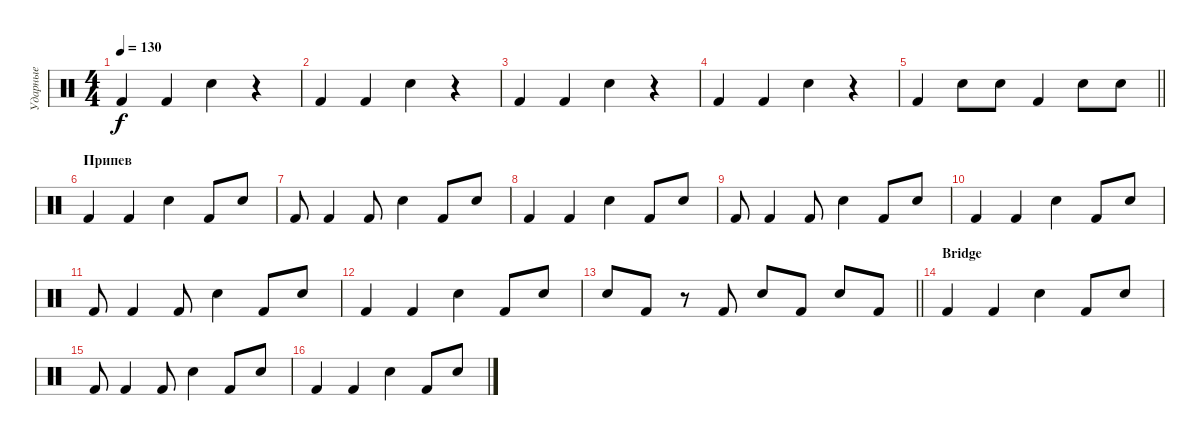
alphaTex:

\track ("Ударные" "Ударные") {instrument percussion}
\staff {score}
\articulation defaults
\ts (4 4)
\tempo 130
\clef neutral
\ks c "Kick (hit) 2".4{dy f} "Kick (hit) 2".4 "Snare (hit) 2".4
r.4 |
"Kick (hit) 2".4 "Kick (hit) 2".4 "Snare (hit) 2".4 r.4 |
"Kick (hit) 2".4 "Kick (hit) 2".4 "Snare (hit) 2".4 r.4 |
"Kick (hit) 2".4 "Kick (hit) 2".4 "Snare (hit) 2".4 r.4 |
\barLineRight lightlight "Kick (hit) 2".4 "Snare (hit) 2".8 "Snare (hit) 2".8 "Kick (hit) 2".4 "Snare (hit) 2".8 "Snare (hit) 2".8
|
\section ("" "Припев")
"Kick (hit) 2".4 "Kick (hit) 2".4 "Snare (hit) 2".4 "Kick (hit) 2".8 "Snare (hit) 2".8 |
"Kick (hit) 2".8 "Kick (hit) 2".4 "Kick (hit) 2".8 "Snare (hit) 2".4 "Kick (hit) 2".8 "Snare (hit) 2".8 |
"Kick (hit) 2".4 "Kick (hit) 2".4 "Snare (hit) 2".4 "Kick (hit) 2".8 "Snare (hit) 2".8 |
"Kick (hit) 2".8 "Kick (hit) 2".4 "Kick (hit) 2".8 "Snare (hit) 2".4 "Kick (hit) 2".8 "Snare (hit) 2".8 |
"Kick (hit) 2".4 "Kick (hit) 2".4 "Snare (hit) 2".4 "Kick (hit) 2".8 "Snare (hit) 2".8 |
"Kick (hit) 2".8 "Kick (hit) 2".4 "Kick (hit) 2".8 "Snare (hit) 2".4 "Kick (hit) 2".8 "Snare (hit) 2".8 |
"Kick (hit) 2".4 "Kick (hit) 2".4 "Snare (hit) 2".4 "Kick (hit) 2".8 "Snare (hit) 2".8 |
\barLineRight lightlight "Snare (hit) 2".8 "Kick (hit) 2".8
r.8 "Kick (hit) 2".8 "Snare (hit) 2".8 "Kick (hit) 2".8 "Snare (hit) 2".8 "Kick (hit) 2".8 |
\section ("" "Bridge")
"Kick (hit) 2".4 "Kick (hit) 2".4 "Snare (hit) 2".4 "Kick (hit) 2".8 "Snare (hit) 2".8 |
"Kick (hit) 2".8 "Kick (hit) 2".4 "Kick (hit) 2".8 "Snare (hit) 2".4 "Kick (hit) 2".8 "Snare (hit) 2".8 |
"Kick (hit) 2".4 "Kick (hit) 2".4 "Snare (hit) 2".4 "Kick (hit) 2".8 "Snare (hit) 2".8
